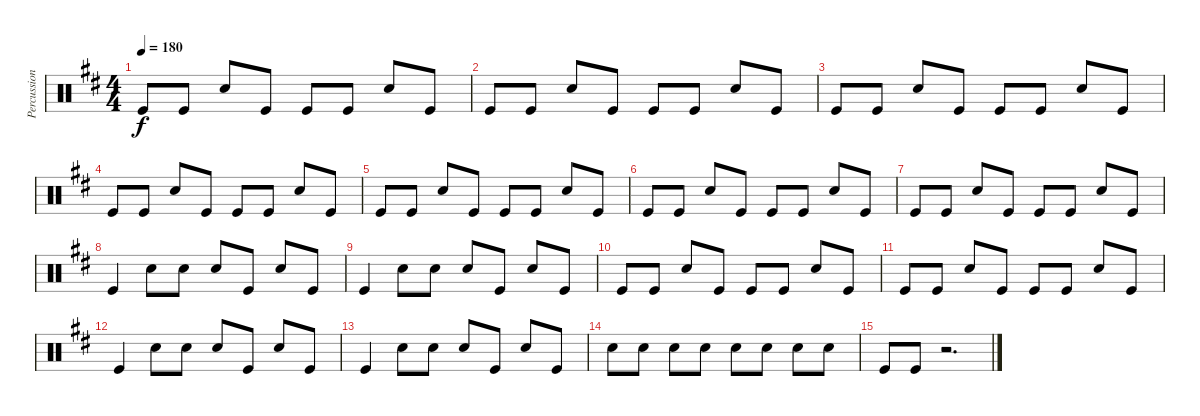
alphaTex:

\track ("Percussion" "Percussion") {instrument percussion}
\staff {score}
\articulation defaults
\ts (4 4)
\tempo 180
\clef neutral
\ks d "Kick (hit)".8{dy f} "Kick (hit)".8 "Snare (hit) 2".8 "Kick (hit)".8 "Kick (hit)".8 "Kick (hit)".8 "Snare (hit) 2".8 "Kick (hit)".8
|
"Kick (hit)".8 "Kick (hit)".8 "Snare (hit) 2".8 "Kick (hit)".8 "Kick (hit)".8 "Kick (hit)".8 "Snare (hit) 2".8 "Kick (hit)".8 |
"Kick (hit)".8 "Kick (hit)".8 "Snare (hit) 2".8 "Kick (hit)".8 "Kick (hit)".8 "Kick (hit)".8 "Snare (hit) 2".8 "Kick (hit)".8 |
"Kick (hit)".8 "Kick (hit)".8 "Snare (hit) 2".8 "Kick (hit)".8 "Kick (hit)".8 "Kick (hit)".8 "Snare (hit) 2".8 "Kick (hit)".8 |
"Kick (hit)".8 "Kick (hit)".8 "Snare (hit) 2".8 "Kick (hit)".8 "Kick (hit)".8 "Kick (hit)".8 "Snare (hit) 2".8 "Kick (hit)".8 |
"Kick (hit)".8 "Kick (hit)".8 "Snare (hit) 2".8 "Kick (hit)".8 "Kick (hit)".8 "Kick (hit)".8 "Snare (hit) 2".8 "Kick (hit)".8 |
"Kick (hit)".8 "Kick (hit)".8 "Snare (hit) 2".8 "Kick (hit)".8 "Kick (hit)".8 "Kick (hit)".8 "Snare (hit) 2".8 "Kick (hit)".8 |
"Kick (hit)".4 "Snare (hit) 2".8 "Snare (hit) 2".8 "Snare (hit) 2".8 "Kick (hit)".8 "Snare (hit) 2".8 "Kick (hit)".8 |
"Kick (hit)".4 "Snare (hit) 2".8 "Snare (hit) 2".8 "Snare (hit) 2".8 "Kick (hit)".8 "Snare (hit) 2".8 "Kick (hit)".8 |
"Kick (hit)".8 "Kick (hit)".8 "Snare (hit) 2".8 "Kick (hit)".8 "Kick (hit)".8 "Kick (hit)".8 "Snare (hit) 2".8 "Kick (hit)".8 |
"Kick (hit)".8 "Kick (hit)".8 "Snare (hit) 2".8 "Kick (hit)".8 "Kick (hit)".8 "Kick (hit)".8 "Snare (hit) 2".8 "Kick (hit)".8 |
"Kick (hit)".4 "Snare (hit) 2".8 "Snare (hit) 2".8 "Snare (hit) 2".8 "Kick (hit)".8 "Snare (hit) 2".8 "Kick (hit)".8 |
"Kick (hit)".4 "Snare (hit) 2".8 "Snare (hit) 2".8 "Snare (hit) 2".8 "Kick (hit)".8 "Snare (hit) 2".8 "Kick (hit)".8 |
"Snare (hit) 2".8 "Snare (hit) 2".8 "Snare (hit) 2".8 "Snare (hit) 2".8 "Snare (hit) 2".8 "Snare (hit) 2".8 "Snare (hit) 2".8 "Snare (hit) 2".8 |
"Kick (hit)".8 "Kick (hit)".8 r.2{d}
